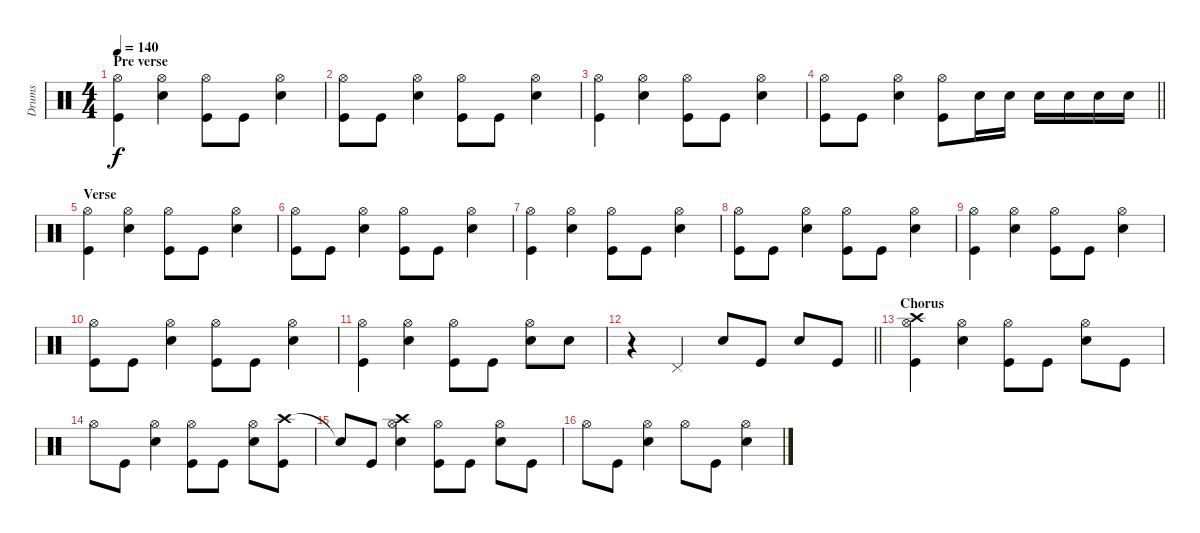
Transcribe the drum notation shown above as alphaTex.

\track ("Drums" "Drums") {instrument percussion}
\staff {score}
\articulation defaults
\ts (4 4)
\section ("" "Pre verse")
\tempo 140
\clef neutral
\ks c
("Hi-Hat (open)" "Kick (hit)").4{dy f} ("Hi-Hat (open)" "Electric Snare (hit)").4 ("Hi-Hat (open)" "Kick (hit)").8 "Kick (hit)".8 ("Hi-Hat (open)" "Electric Snare (hit)").4 |
("Hi-Hat (open)" "Kick (hit)").8 "Kick (hit)".8 ("Hi-Hat (open)" "Electric Snare (hit)").4 ("Hi-Hat (open)" "Kick (hit)").8 "Kick (hit)".8 ("Hi-Hat (open)" "Electric Snare (hit)").4 |
("Hi-Hat (open)" "Kick (hit)").4 ("Hi-Hat (open)" "Electric Snare (hit)").4 ("Hi-Hat (open)" "Kick (hit)").8 "Kick (hit)".8 ("Hi-Hat (open)" "Electric Snare (hit)").4 |
\barLineRight lightlight
("Hi-Hat (open)" "Kick (hit)").8 "Kick (hit)".8 ("Hi-Hat (open)" "Electric Snare (hit)").4 ("Hi-Hat (open)" "Kick (hit)").8 "Electric Snare (hit)".16 "Electric Snare (hit)".16 "Electric Snare (hit)".16 "Electric Snare (hit)".16 "Electric Snare (hit)".16 "Electric Snare (hit)".16 |
\section ("" "Verse")
("Hi-Hat (open)" "Kick (hit)").4 ("Hi-Hat (open)" "Electric Snare (hit)").4 ("Hi-Hat (open)" "Kick (hit)").8 "Kick (hit)".8 ("Hi-Hat (open)" "Electric Snare (hit)").4 |
("Hi-Hat (open)" "Kick (hit)").8 "Kick (hit)".8 ("Hi-Hat (open)" "Electric Snare (hit)").4 ("Hi-Hat (open)" "Kick (hit)").8 "Kick (hit)".8 ("Hi-Hat (open)" "Electric Snare (hit)").4 |
("Hi-Hat (open)" "Kick (hit)").4 ("Hi-Hat (open)" "Electric Snare (hit)").4 ("Hi-Hat (open)" "Kick (hit)").8 "Kick (hit)".8 ("Hi-Hat (open)" "Electric Snare (hit)").4 |
("Hi-Hat (open)" "Kick (hit)").8 "Kick (hit)".8 ("Hi-Hat (open)" "Electric Snare (hit)").4 ("Hi-Hat (open)" "Kick (hit)").8 "Kick (hit)".8 ("Hi-Hat (open)" "Electric Snare (hit)").4 |
("Hi-Hat (open)" "Kick (hit)").4 ("Hi-Hat (open)" "Electric Snare (hit)").4 ("Hi-Hat (open)" "Kick (hit)").8 "Kick (hit)".8 ("Hi-Hat (open)" "Electric Snare (hit)").4 |
("Hi-Hat (open)" "Kick (hit)").8 "Kick (hit)".8 ("Hi-Hat (open)" "Electric Snare (hit)").4 ("Hi-Hat (open)" "Kick (hit)").8 "Kick (hit)".8 ("Hi-Hat (open)" "Electric Snare (hit)").4 |
("Hi-Hat (open)" "Kick (hit)").4 ("Hi-Hat (open)" "Electric Snare (hit)").4 ("Hi-Hat (open)" "Kick (hit)").8 "Kick (hit)".8 ("Hi-Hat (open)" "Electric Snare (hit)").8 "Electric Snare (hit)".8 |
\barLineRight lightlight
r.4 "Pedal Hi-Hat (hit)".4 "Electric Snare (hit)".8 "Kick (hit)".8 "Electric Snare (hit)".8 "Kick (hit)".8 |
\section ("" "Chorus")
("Crash high (hit)" "Hi-Hat (open)" "Kick (hit)").4 ("Hi-Hat (open)" "Electric Snare (hit)").4 ("Hi-Hat (open)" "Kick (hit)").8 "Kick (hit)".8 ("Hi-Hat (open)" "Electric Snare (hit)").8 "Kick (hit)".8 |
"Hi-Hat (open)".8 "Kick (hit)".8 ("Hi-Hat (open)" "Electric Snare (hit)").4 ("Hi-Hat (open)" "Kick (hit)").8 "Kick (hit)".8 ("Hi-Hat (open)" "Electric Snare (hit)").8 ("Crash high (hit)" "Kick (hit)").8 |
"Snare (hit)"{t}.8 "Kick (hit)".8 ("Crash high (hit)" "Hi-Hat (open)" "Electric Snare (hit)").4 ("Hi-Hat (open)" "Kick (hit)").8 "Kick (hit)".8 ("Hi-Hat (open)" "Electric Snare (hit)").8 "Kick (hit)".8 |
"Hi-Hat (open)".8 "Kick (hit)".8 ("Hi-Hat (open)" "Electric Snare (hit)").4 "Hi-Hat (open)".8 "Kick (hit)".8 ("Hi-Hat (open)" "Electric Snare (hit)").4
